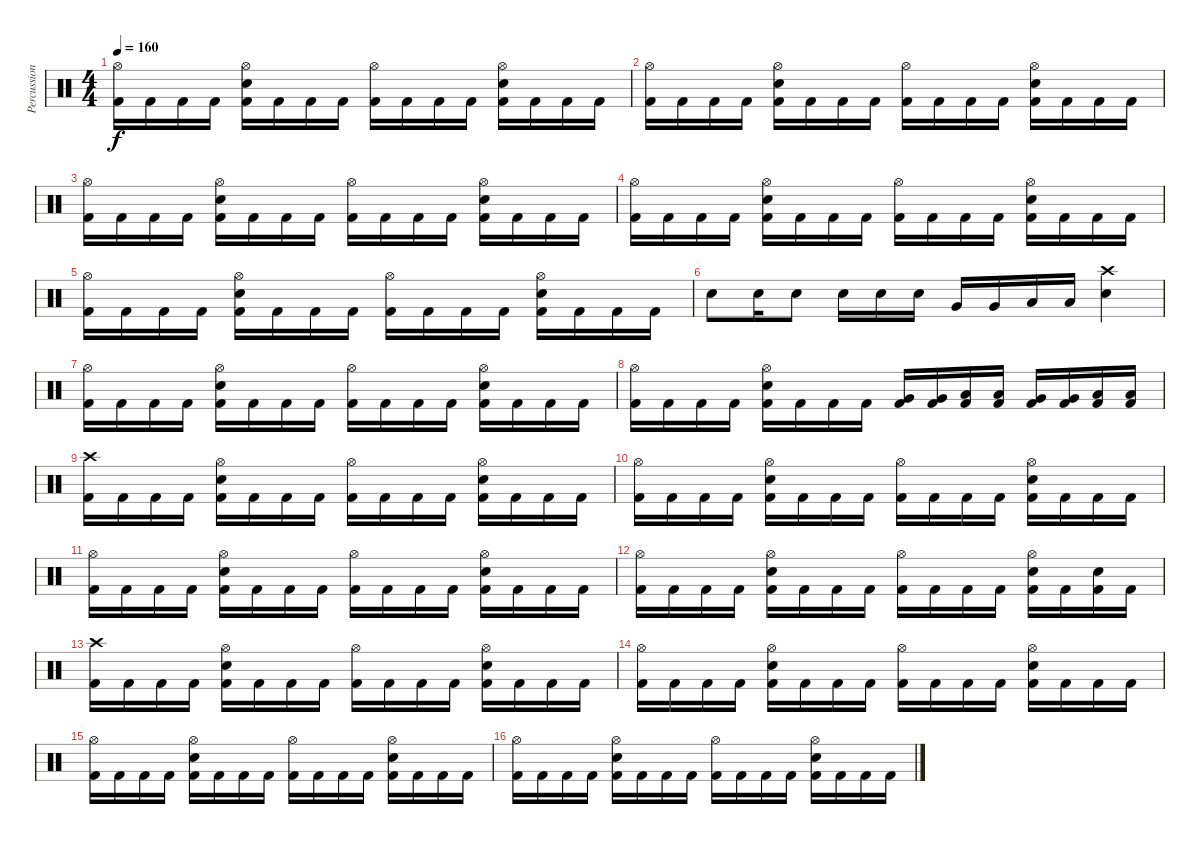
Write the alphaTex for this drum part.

\track ("Percussion" "Percussion") {instrument percussion}
\staff {score}
\articulation defaults
\ts (4 4)
\tempo 160
\clef neutral
\ks c
("Hi-Hat (open)" "Kick (hit) 2").16{dy f} "Kick (hit) 2".16 "Kick (hit) 2".16 "Kick (hit) 2".16 ("Hi-Hat (open)" "Electric Snare (hit)" "Kick (hit) 2").16 "Kick (hit) 2".16 "Kick (hit) 2".16 "Kick (hit) 2".16 ("Hi-Hat (open)" "Kick (hit) 2").16 "Kick (hit) 2".16 "Kick (hit) 2".16 "Kick (hit) 2".16 ("Hi-Hat (open)" "Electric Snare (hit)" "Kick (hit) 2").16 "Kick (hit) 2".16 "Kick (hit) 2".16 "Kick (hit) 2".16 |
("Hi-Hat (open)" "Kick (hit) 2").16 "Kick (hit) 2".16 "Kick (hit) 2".16 "Kick (hit) 2".16 ("Hi-Hat (open)" "Electric Snare (hit)" "Kick (hit) 2").16 "Kick (hit) 2".16 "Kick (hit) 2".16 "Kick (hit) 2".16 ("Hi-Hat (open)" "Kick (hit) 2").16 "Kick (hit) 2".16 "Kick (hit) 2".16 "Kick (hit) 2".16 ("Hi-Hat (open)" "Electric Snare (hit)" "Kick (hit) 2").16 "Kick (hit) 2".16 "Kick (hit) 2".16 "Kick (hit) 2".16 |
("Hi-Hat (open)" "Kick (hit) 2").16 "Kick (hit) 2".16 "Kick (hit) 2".16 "Kick (hit) 2".16 ("Hi-Hat (open)" "Electric Snare (hit)" "Kick (hit) 2").16 "Kick (hit) 2".16 "Kick (hit) 2".16 "Kick (hit) 2".16 ("Hi-Hat (open)" "Kick (hit) 2").16 "Kick (hit) 2".16 "Kick (hit) 2".16 "Kick (hit) 2".16 ("Hi-Hat (open)" "Electric Snare (hit)" "Kick (hit) 2").16 "Kick (hit) 2".16 "Kick (hit) 2".16 "Kick (hit) 2".16 |
("Hi-Hat (open)" "Kick (hit) 2").16 "Kick (hit) 2".16 "Kick (hit) 2".16 "Kick (hit) 2".16 ("Hi-Hat (open)" "Electric Snare (hit)" "Kick (hit) 2").16 "Kick (hit) 2".16 "Kick (hit) 2".16 "Kick (hit) 2".16 ("Hi-Hat (open)" "Kick (hit) 2").16 "Kick (hit) 2".16 "Kick (hit) 2".16 "Kick (hit) 2".16 ("Hi-Hat (open)" "Electric Snare (hit)" "Kick (hit) 2").16 "Kick (hit) 2".16 "Kick (hit) 2".16 "Kick (hit) 2".16 |
("Hi-Hat (open)" "Kick (hit) 2").16 "Kick (hit) 2".16 "Kick (hit) 2".16 "Kick (hit) 2".16 ("Hi-Hat (open)" "Electric Snare (hit)" "Kick (hit) 2").16 "Kick (hit) 2".16 "Kick (hit) 2".16 "Kick (hit) 2".16 ("Hi-Hat (open)" "Kick (hit) 2").16 "Kick (hit) 2".16 "Kick (hit) 2".16 "Kick (hit) 2".16 ("Hi-Hat (open)" "Electric Snare (hit)" "Kick (hit) 2").16 "Kick (hit) 2".16 "Kick (hit) 2".16 "Kick (hit) 2".16 |
"Electric Snare (hit)".8 "Electric Snare (hit)".16 "Electric Snare (hit)".8 "Electric Snare (hit)".16 "Electric Snare (hit)".16 "Electric Snare (hit)".16 "Very Low Tom (hit)".16 "Very Low Tom (hit)".16 "Low Floor Tom (hit)".16 "Low Floor Tom (hit)".16 ("Crash high (hit)" "Electric Snare (hit)").4 |
("Hi-Hat (open)" "Kick (hit) 2").16 "Kick (hit) 2".16 "Kick (hit) 2".16 "Kick (hit) 2".16 ("Hi-Hat (open)" "Electric Snare (hit)" "Kick (hit) 2").16 "Kick (hit) 2".16 "Kick (hit) 2".16 "Kick (hit) 2".16 ("Hi-Hat (open)" "Kick (hit) 2").16 "Kick (hit) 2".16 "Kick (hit) 2".16 "Kick (hit) 2".16 ("Hi-Hat (open)" "Electric Snare (hit)" "Kick (hit) 2").16 "Kick (hit) 2".16 "Kick (hit) 2".16 "Kick (hit) 2".16 |
("Hi-Hat (open)" "Kick (hit) 2").16 "Kick (hit) 2".16 "Kick (hit) 2".16 "Kick (hit) 2".16 ("Hi-Hat (open)" "Electric Snare (hit)" "Kick (hit) 2").16 "Kick (hit) 2".16 "Kick (hit) 2".16 "Kick (hit) 2".16 ("Very Low Tom (hit)" "Kick (hit) 2").16 ("Very Low Tom (hit)" "Kick (hit) 2").16 ("Low Floor Tom (hit)" "Kick (hit) 2").16 ("Low Floor Tom (hit)" "Kick (hit) 2").16 ("Very Low Tom (hit)" "Kick (hit) 2").16 ("Very Low Tom (hit)" "Kick (hit) 2").16 ("Low Floor Tom (hit)" "Kick (hit) 2").16 ("Low Floor Tom (hit)" "Kick (hit) 2").16 |
("Crash high (hit)" "Kick (hit) 2").16 "Kick (hit) 2".16 "Kick (hit) 2".16 "Kick (hit) 2".16 ("Hi-Hat (open)" "Electric Snare (hit)" "Kick (hit) 2").16 "Kick (hit) 2".16 "Kick (hit) 2".16 "Kick (hit) 2".16 ("Hi-Hat (open)" "Kick (hit) 2").16 "Kick (hit) 2".16 "Kick (hit) 2".16 "Kick (hit) 2".16 ("Hi-Hat (open)" "Electric Snare (hit)" "Kick (hit) 2").16 "Kick (hit) 2".16 "Kick (hit) 2".16 "Kick (hit) 2".16 |
("Hi-Hat (open)" "Kick (hit) 2").16 "Kick (hit) 2".16 "Kick (hit) 2".16 "Kick (hit) 2".16 ("Hi-Hat (open)" "Electric Snare (hit)" "Kick (hit) 2").16 "Kick (hit) 2".16 "Kick (hit) 2".16 "Kick (hit) 2".16 ("Hi-Hat (open)" "Kick (hit) 2").16 "Kick (hit) 2".16 "Kick (hit) 2".16 "Kick (hit) 2".16 ("Hi-Hat (open)" "Electric Snare (hit)" "Kick (hit) 2").16 "Kick (hit) 2".16 "Kick (hit) 2".16 "Kick (hit) 2".16 |
("Hi-Hat (open)" "Kick (hit) 2").16 "Kick (hit) 2".16 "Kick (hit) 2".16 "Kick (hit) 2".16 ("Hi-Hat (open)" "Electric Snare (hit)" "Kick (hit) 2").16 "Kick (hit) 2".16 "Kick (hit) 2".16 "Kick (hit) 2".16 ("Hi-Hat (open)" "Kick (hit) 2").16 "Kick (hit) 2".16 "Kick (hit) 2".16 "Kick (hit) 2".16 ("Hi-Hat (open)" "Electric Snare (hit)" "Kick (hit) 2").16 "Kick (hit) 2".16 "Kick (hit) 2".16 "Kick (hit) 2".16 |
("Hi-Hat (open)" "Kick (hit) 2").16 "Kick (hit) 2".16 "Kick (hit) 2".16 "Kick (hit) 2".16 ("Hi-Hat (open)" "Electric Snare (hit)" "Kick (hit) 2").16 "Kick (hit) 2".16 "Kick (hit) 2".16 "Kick (hit) 2".16 ("Hi-Hat (open)" "Kick (hit) 2").16 "Kick (hit) 2".16 "Kick (hit) 2".16 "Kick (hit) 2".16 ("Hi-Hat (open)" "Electric Snare (hit)" "Kick (hit) 2").16 "Kick (hit) 2".16 ("Electric Snare (hit)" "Kick (hit) 2").16 "Kick (hit) 2".16 |
("Crash high (hit)" "Kick (hit) 2").16 "Kick (hit) 2".16 "Kick (hit) 2".16 "Kick (hit) 2".16 ("Hi-Hat (open)" "Electric Snare (hit)" "Kick (hit) 2").16 "Kick (hit) 2".16 "Kick (hit) 2".16 "Kick (hit) 2".16 ("Hi-Hat (open)" "Kick (hit) 2").16 "Kick (hit) 2".16 "Kick (hit) 2".16 "Kick (hit) 2".16 ("Hi-Hat (open)" "Electric Snare (hit)" "Kick (hit) 2").16 "Kick (hit) 2".16 "Kick (hit) 2".16 "Kick (hit) 2".16 |
("Hi-Hat (open)" "Kick (hit) 2").16 "Kick (hit) 2".16 "Kick (hit) 2".16 "Kick (hit) 2".16 ("Hi-Hat (open)" "Electric Snare (hit)" "Kick (hit) 2").16 "Kick (hit) 2".16 "Kick (hit) 2".16 "Kick (hit) 2".16 ("Hi-Hat (open)" "Kick (hit) 2").16 "Kick (hit) 2".16 "Kick (hit) 2".16 "Kick (hit) 2".16 ("Hi-Hat (open)" "Electric Snare (hit)" "Kick (hit) 2").16 "Kick (hit) 2".16 "Kick (hit) 2".16 "Kick (hit) 2".16 |
("Hi-Hat (open)" "Kick (hit) 2").16 "Kick (hit) 2".16 "Kick (hit) 2".16 "Kick (hit) 2".16 ("Hi-Hat (open)" "Electric Snare (hit)" "Kick (hit) 2").16 "Kick (hit) 2".16 "Kick (hit) 2".16 "Kick (hit) 2".16 ("Hi-Hat (open)" "Kick (hit) 2").16 "Kick (hit) 2".16 "Kick (hit) 2".16 "Kick (hit) 2".16 ("Hi-Hat (open)" "Electric Snare (hit)" "Kick (hit) 2").16 "Kick (hit) 2".16 "Kick (hit) 2".16 "Kick (hit) 2".16 |
("Hi-Hat (open)" "Kick (hit) 2").16 "Kick (hit) 2".16 "Kick (hit) 2".16 "Kick (hit) 2".16 ("Hi-Hat (open)" "Electric Snare (hit)" "Kick (hit) 2").16 "Kick (hit) 2".16 "Kick (hit) 2".16 "Kick (hit) 2".16 ("Hi-Hat (open)" "Kick (hit) 2").16 "Kick (hit) 2".16 "Kick (hit) 2".16 "Kick (hit) 2".16 ("Hi-Hat (open)" "Electric Snare (hit)" "Kick (hit) 2").16 "Kick (hit) 2".16 "Kick (hit) 2".16 "Kick (hit) 2".16
